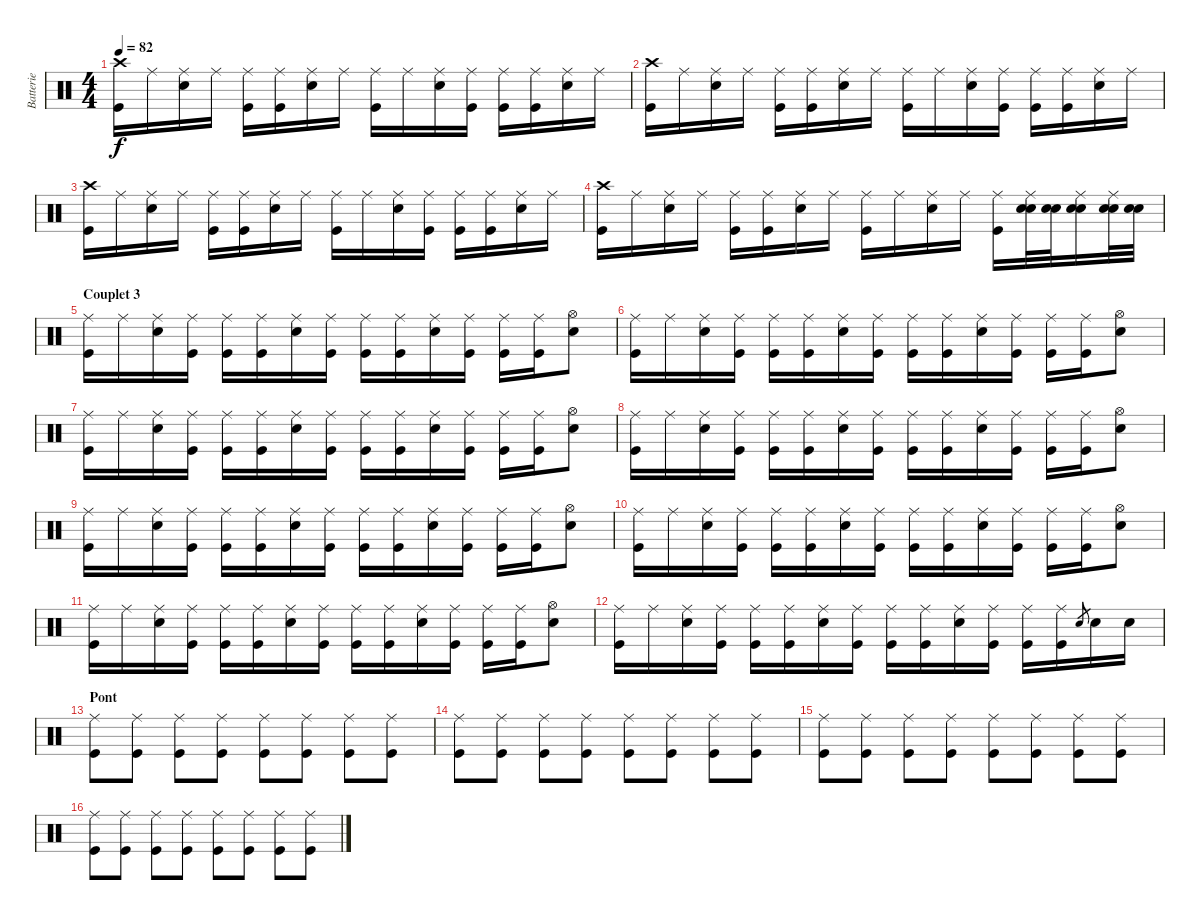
\track ("Batterie" "Batterie") {instrument percussion}
\staff {score}
\articulation defaults
\ts (4 4)
\tempo 82
\clef neutral
\ks c
("Crash high (hit)" "Kick (hit)").16{dy f} "Ride (middle)".16 ("Ride (middle)" "Snare (hit) 2").16 "Ride (middle)".16 ("Ride (middle)" "Kick (hit)").16 ("Ride (middle)" "Kick (hit)").16 ("Ride (middle)" "Snare (hit) 2").16 "Ride (middle)".16 ("Ride (middle)" "Kick (hit)").16 "Ride (middle)".16 ("Ride (middle)" "Snare (hit) 2").16 ("Ride (middle)" "Kick (hit)").16 ("Ride (middle)" "Kick (hit)").16 ("Ride (middle)" "Kick (hit)").16 ("Ride (middle)" "Snare (hit) 2").16 "Ride (middle)".16 |
("Crash high (hit)" "Kick (hit)").16 "Ride (middle)".16 ("Ride (middle)" "Snare (hit) 2").16 "Ride (middle)".16 ("Ride (middle)" "Kick (hit)").16 ("Ride (middle)" "Kick (hit)").16 ("Ride (middle)" "Snare (hit) 2").16 "Ride (middle)".16 ("Ride (middle)" "Kick (hit)").16 "Ride (middle)".16 ("Ride (middle)" "Snare (hit) 2").16 ("Ride (middle)" "Kick (hit)").16 ("Ride (middle)" "Kick (hit)").16 ("Ride (middle)" "Kick (hit)").16 ("Ride (middle)" "Snare (hit) 2").16 "Ride (middle)".16 |
("Crash high (hit)" "Kick (hit)").16 "Ride (middle)".16 ("Ride (middle)" "Snare (hit) 2").16 "Ride (middle)".16 ("Ride (middle)" "Kick (hit)").16 ("Ride (middle)" "Kick (hit)").16 ("Ride (middle)" "Snare (hit) 2").16 "Ride (middle)".16 ("Ride (middle)" "Kick (hit)").16 "Ride (middle)".16 ("Ride (middle)" "Snare (hit) 2").16 ("Ride (middle)" "Kick (hit)").16 ("Ride (middle)" "Kick (hit)").16 ("Ride (middle)" "Kick (hit)").16 ("Ride (middle)" "Snare (hit) 2").16 "Ride (middle)".16 |
("Crash high (hit)" "Kick (hit)").16 "Ride (middle)".16 ("Ride (middle)" "Snare (hit) 2").16 "Ride (middle)".16 ("Ride (middle)" "Kick (hit)").16 ("Ride (middle)" "Kick (hit)").16 ("Ride (middle)" "Snare (hit) 2").16 "Ride (middle)".16 ("Ride (middle)" "Kick (hit)").16 "Ride (middle)".16 ("Ride (middle)" "Snare (hit) 2").16 "Ride (middle)".16 ("Ride (middle)" "Kick (hit)").16 ("Ride (middle)" "Electric Snare (hit)" "Snare (hit) 2").32 ("Electric Snare (hit)" "Snare (hit) 2").32 ("Ride (middle)" "Electric Snare (hit)" "Snare (hit) 2").16 ("Ride (middle)" "Electric Snare (hit)" "Snare (hit) 2").32 ("Electric Snare (hit)" "Snare (hit) 2").32 |
\section ("" "Couplet 3")
("Ride (middle)" "Kick (hit)").16 "Ride (middle)".16 ("Ride (middle)" "Snare (hit) 2").16 ("Ride (middle)" "Kick (hit)").16 ("Ride (middle)" "Kick (hit)").16 ("Ride (middle)" "Kick (hit)").16 ("Ride (middle)" "Snare (hit) 2").16 ("Ride (middle)" "Kick (hit)").16 ("Ride (middle)" "Kick (hit)").16 ("Ride (middle)" "Kick (hit)").16 ("Ride (middle)" "Snare (hit) 2").16 ("Ride (middle)" "Kick (hit)").16 ("Ride (middle)" "Kick (hit)").16 ("Ride (middle)" "Kick (hit)").16 ("Hi-Hat (open)" "Snare (hit) 2").8 |
("Ride (middle)" "Kick (hit)").16 "Ride (middle)".16 ("Ride (middle)" "Snare (hit) 2").16 ("Ride (middle)" "Kick (hit)").16 ("Ride (middle)" "Kick (hit)").16 ("Ride (middle)" "Kick (hit)").16 ("Ride (middle)" "Snare (hit) 2").16 ("Ride (middle)" "Kick (hit)").16 ("Ride (middle)" "Kick (hit)").16 ("Ride (middle)" "Kick (hit)").16 ("Ride (middle)" "Snare (hit) 2").16 ("Ride (middle)" "Kick (hit)").16 ("Ride (middle)" "Kick (hit)").16 ("Ride (middle)" "Kick (hit)").16 ("Hi-Hat (open)" "Snare (hit) 2").8 |
("Ride (middle)" "Kick (hit)").16 "Ride (middle)".16 ("Ride (middle)" "Snare (hit) 2").16 ("Ride (middle)" "Kick (hit)").16 ("Ride (middle)" "Kick (hit)").16 ("Ride (middle)" "Kick (hit)").16 ("Ride (middle)" "Snare (hit) 2").16 ("Ride (middle)" "Kick (hit)").16 ("Ride (middle)" "Kick (hit)").16 ("Ride (middle)" "Kick (hit)").16 ("Ride (middle)" "Snare (hit) 2").16 ("Ride (middle)" "Kick (hit)").16 ("Ride (middle)" "Kick (hit)").16 ("Ride (middle)" "Kick (hit)").16 ("Hi-Hat (open)" "Snare (hit) 2").8 |
("Ride (middle)" "Kick (hit)").16 "Ride (middle)".16 ("Ride (middle)" "Snare (hit) 2").16 ("Ride (middle)" "Kick (hit)").16 ("Ride (middle)" "Kick (hit)").16 ("Ride (middle)" "Kick (hit)").16 ("Ride (middle)" "Snare (hit) 2").16 ("Ride (middle)" "Kick (hit)").16 ("Ride (middle)" "Kick (hit)").16 ("Ride (middle)" "Kick (hit)").16 ("Ride (middle)" "Snare (hit) 2").16 ("Ride (middle)" "Kick (hit)").16 ("Ride (middle)" "Kick (hit)").16 ("Ride (middle)" "Kick (hit)").16 ("Hi-Hat (open)" "Snare (hit) 2").8 |
("Ride (middle)" "Kick (hit)").16 "Ride (middle)".16 ("Ride (middle)" "Snare (hit) 2").16 ("Ride (middle)" "Kick (hit)").16 ("Ride (middle)" "Kick (hit)").16 ("Ride (middle)" "Kick (hit)").16 ("Ride (middle)" "Snare (hit) 2").16 ("Ride (middle)" "Kick (hit)").16 ("Ride (middle)" "Kick (hit)").16 ("Ride (middle)" "Kick (hit)").16 ("Ride (middle)" "Snare (hit) 2").16 ("Ride (middle)" "Kick (hit)").16 ("Ride (middle)" "Kick (hit)").16 ("Ride (middle)" "Kick (hit)").16 ("Hi-Hat (open)" "Snare (hit) 2").8 |
("Ride (middle)" "Kick (hit)").16 "Ride (middle)".16 ("Ride (middle)" "Snare (hit) 2").16 ("Ride (middle)" "Kick (hit)").16 ("Ride (middle)" "Kick (hit)").16 ("Ride (middle)" "Kick (hit)").16 ("Ride (middle)" "Snare (hit) 2").16 ("Ride (middle)" "Kick (hit)").16 ("Ride (middle)" "Kick (hit)").16 ("Ride (middle)" "Kick (hit)").16 ("Ride (middle)" "Snare (hit) 2").16 ("Ride (middle)" "Kick (hit)").16 ("Ride (middle)" "Kick (hit)").16 ("Ride (middle)" "Kick (hit)").16 ("Hi-Hat (open)" "Snare (hit) 2").8 |
("Ride (middle)" "Kick (hit)").16 "Ride (middle)".16 ("Ride (middle)" "Snare (hit) 2").16 ("Ride (middle)" "Kick (hit)").16 ("Ride (middle)" "Kick (hit)").16 ("Ride (middle)" "Kick (hit)").16 ("Ride (middle)" "Snare (hit) 2").16 ("Ride (middle)" "Kick (hit)").16 ("Ride (middle)" "Kick (hit)").16 ("Ride (middle)" "Kick (hit)").16 ("Ride (middle)" "Snare (hit) 2").16 ("Ride (middle)" "Kick (hit)").16 ("Ride (middle)" "Kick (hit)").16 ("Ride (middle)" "Kick (hit)").16 ("Hi-Hat (open)" "Snare (hit) 2").8 |
("Ride (middle)" "Kick (hit)").16 "Ride (middle)".16 ("Ride (middle)" "Snare (hit) 2").16 ("Ride (middle)" "Kick (hit)").16 ("Ride (middle)" "Kick (hit)").16 ("Ride (middle)" "Kick (hit)").16 ("Ride (middle)" "Snare (hit) 2").16 ("Ride (middle)" "Kick (hit)").16 ("Ride (middle)" "Kick (hit)").16 ("Ride (middle)" "Kick (hit)").16 ("Ride (middle)" "Snare (hit) 2").16 ("Ride (middle)" "Kick (hit)").16 ("Ride (middle)" "Kick (hit)").16 ("Ride (middle)" "Kick (hit)").16 "Snare (hit) 2"{sl}.8{gr} "Snare (hit) 2".16 "Snare (hit) 2".16 |
\section ("" "Pont")
("Ride (middle)" "Kick (hit)").8 ("Ride (middle)" "Kick (hit)").8 ("Ride (middle)" "Kick (hit)").8 ("Ride (middle)" "Kick (hit)").8 ("Ride (middle)" "Kick (hit)").8 ("Ride (middle)" "Kick (hit)").8 ("Ride (middle)" "Kick (hit)").8 ("Ride (middle)" "Kick (hit)").8 |
("Ride (middle)" "Kick (hit)").8 ("Ride (middle)" "Kick (hit)").8 ("Ride (middle)" "Kick (hit)").8 ("Ride (middle)" "Kick (hit)").8 ("Ride (middle)" "Kick (hit)").8 ("Ride (middle)" "Kick (hit)").8 ("Ride (middle)" "Kick (hit)").8 ("Ride (middle)" "Kick (hit)").8 |
("Ride (middle)" "Kick (hit)").8 ("Ride (middle)" "Kick (hit)").8 ("Ride (middle)" "Kick (hit)").8 ("Ride (middle)" "Kick (hit)").8 ("Ride (middle)" "Kick (hit)").8 ("Ride (middle)" "Kick (hit)").8 ("Ride (middle)" "Kick (hit)").8 ("Ride (middle)" "Kick (hit)").8 |
("Ride (middle)" "Kick (hit)").8 ("Ride (middle)" "Kick (hit)").8 ("Ride (middle)" "Kick (hit)").8 ("Ride (middle)" "Kick (hit)").8 ("Ride (middle)" "Kick (hit)").8 ("Ride (middle)" "Kick (hit)").8 ("Ride (middle)" "Kick (hit)").8 ("Ride (middle)" "Kick (hit)").8
